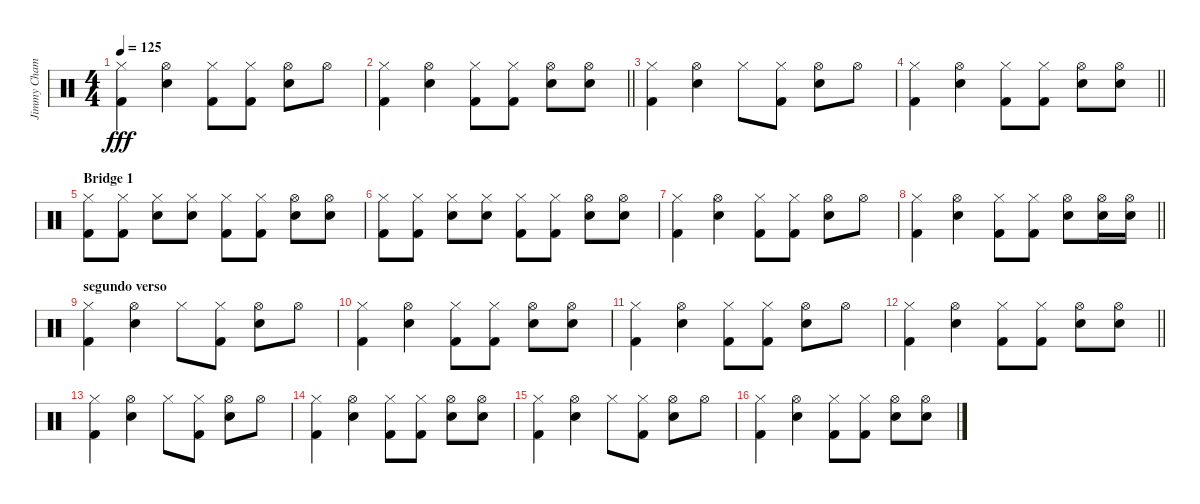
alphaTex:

\track ("Jimmy Chamberline" "Jimmy Cham") {instrument percussion}
\staff {score}
\articulation defaults
\ts (4 4)
\tempo 125
\clef neutral
\ks c
("Hi-Hat (closed)" "Kick (hit) 2").4{dy fff} ("Hi-Hat (open)" "Snare (hit) 2").4 ("Hi-Hat (closed)" "Kick (hit) 2").8 ("Hi-Hat (closed)" "Kick (hit) 2").8 ("Hi-Hat (open)" "Snare (hit) 2").8 "Hi-Hat (open)".8 |
\barLineRight lightlight
("Hi-Hat (closed)" "Kick (hit) 2").4 ("Hi-Hat (open)" "Snare (hit) 2").4 ("Hi-Hat (closed)" "Kick (hit) 2").8 ("Hi-Hat (closed)" "Kick (hit) 2").8 ("Hi-Hat (open)" "Snare (hit) 2").8 ("Hi-Hat (open)" "Snare (hit) 2").8 |
("Hi-Hat (closed)" "Kick (hit) 2").4 ("Hi-Hat (open)" "Snare (hit) 2").4 "Hi-Hat (closed)".8 ("Hi-Hat (closed)" "Kick (hit) 2").8 ("Hi-Hat (open)" "Snare (hit) 2").8 "Hi-Hat (open)".8 |
\barLineRight lightlight
("Hi-Hat (closed)" "Kick (hit) 2").4 ("Hi-Hat (open)" "Snare (hit) 2").4 ("Hi-Hat (closed)" "Kick (hit) 2").8 ("Hi-Hat (closed)" "Kick (hit) 2").8 ("Hi-Hat (open)" "Snare (hit) 2").8 ("Hi-Hat (open)" "Snare (hit) 2").8 |
\section ("" "Bridge 1")
("Hi-Hat (closed)" "Kick (hit) 2").8 ("Hi-Hat (closed)" "Kick (hit) 2").8 ("Hi-Hat (closed)" "Snare (hit) 2").8 ("Hi-Hat (closed)" "Snare (hit) 2").8 ("Hi-Hat (closed)" "Kick (hit) 2").8 ("Hi-Hat (closed)" "Kick (hit) 2").8 ("Hi-Hat (open)" "Snare (hit) 2").8 ("Hi-Hat (open)" "Snare (hit) 2").8 |
("Hi-Hat (closed)" "Kick (hit) 2").8 ("Hi-Hat (closed)" "Kick (hit) 2").8 ("Hi-Hat (closed)" "Snare (hit) 2").8 ("Hi-Hat (closed)" "Snare (hit) 2").8 ("Hi-Hat (closed)" "Kick (hit) 2").8 ("Hi-Hat (closed)" "Kick (hit) 2").8 ("Hi-Hat (open)" "Snare (hit) 2").8 ("Hi-Hat (open)" "Snare (hit) 2").8 |
("Hi-Hat (closed)" "Kick (hit) 2").4 ("Hi-Hat (open)" "Snare (hit) 2").4 ("Hi-Hat (closed)" "Kick (hit) 2").8 ("Hi-Hat (closed)" "Kick (hit) 2").8 ("Hi-Hat (open)" "Snare (hit) 2").8 "Hi-Hat (open)".8 |
\barLineRight lightlight
("Hi-Hat (closed)" "Kick (hit) 2").4 ("Hi-Hat (open)" "Snare (hit) 2").4 ("Hi-Hat (closed)" "Kick (hit) 2").8 ("Hi-Hat (closed)" "Kick (hit) 2").8 ("Hi-Hat (open)" "Snare (hit) 2").8 ("Hi-Hat (open)" "Snare (hit) 2").16 ("Hi-Hat (open)" "Snare (hit) 2").16 |
\section ("" "segundo verso")
("Hi-Hat (closed)" "Kick (hit) 2").4 ("Hi-Hat (open)" "Snare (hit) 2").4 "Hi-Hat (closed)".8 ("Hi-Hat (closed)" "Kick (hit) 2").8 ("Hi-Hat (open)" "Snare (hit) 2").8 "Hi-Hat (open)".8 |
("Hi-Hat (closed)" "Kick (hit) 2").4 ("Hi-Hat (open)" "Snare (hit) 2").4 ("Hi-Hat (closed)" "Kick (hit) 2").8 ("Hi-Hat (closed)" "Kick (hit) 2").8 ("Hi-Hat (open)" "Snare (hit) 2").8 ("Hi-Hat (open)" "Snare (hit) 2").8 |
("Hi-Hat (closed)" "Kick (hit) 2").4 ("Hi-Hat (open)" "Snare (hit) 2").4 ("Hi-Hat (closed)" "Kick (hit) 2").8 ("Hi-Hat (closed)" "Kick (hit) 2").8 ("Hi-Hat (open)" "Snare (hit) 2").8 "Hi-Hat (open)".8 |
\barLineRight lightlight
("Hi-Hat (closed)" "Kick (hit) 2").4 ("Hi-Hat (open)" "Snare (hit) 2").4 ("Hi-Hat (closed)" "Kick (hit) 2").8 ("Hi-Hat (closed)" "Kick (hit) 2").8 ("Hi-Hat (open)" "Snare (hit) 2").8 ("Hi-Hat (open)" "Snare (hit) 2").8 |
("Hi-Hat (closed)" "Kick (hit) 2").4 ("Hi-Hat (open)" "Snare (hit) 2").4 "Hi-Hat (closed)".8 ("Hi-Hat (closed)" "Kick (hit) 2").8 ("Hi-Hat (open)" "Snare (hit) 2").8 "Hi-Hat (open)".8 |
("Hi-Hat (closed)" "Kick (hit) 2").4 ("Hi-Hat (open)" "Snare (hit) 2").4 ("Hi-Hat (closed)" "Kick (hit) 2").8 ("Hi-Hat (closed)" "Kick (hit) 2").8 ("Hi-Hat (open)" "Snare (hit) 2").8 ("Hi-Hat (open)" "Snare (hit) 2").8 |
("Hi-Hat (closed)" "Kick (hit) 2").4 ("Hi-Hat (open)" "Snare (hit) 2").4 "Hi-Hat (closed)".8 ("Hi-Hat (closed)" "Kick (hit) 2").8 ("Hi-Hat (open)" "Snare (hit) 2").8 "Hi-Hat (open)".8 |
("Hi-Hat (closed)" "Kick (hit) 2").4 ("Hi-Hat (open)" "Snare (hit) 2").4 ("Hi-Hat (closed)" "Kick (hit) 2").8 ("Hi-Hat (closed)" "Kick (hit) 2").8 ("Hi-Hat (open)" "Snare (hit) 2").8 ("Hi-Hat (open)" "Snare (hit) 2").8
